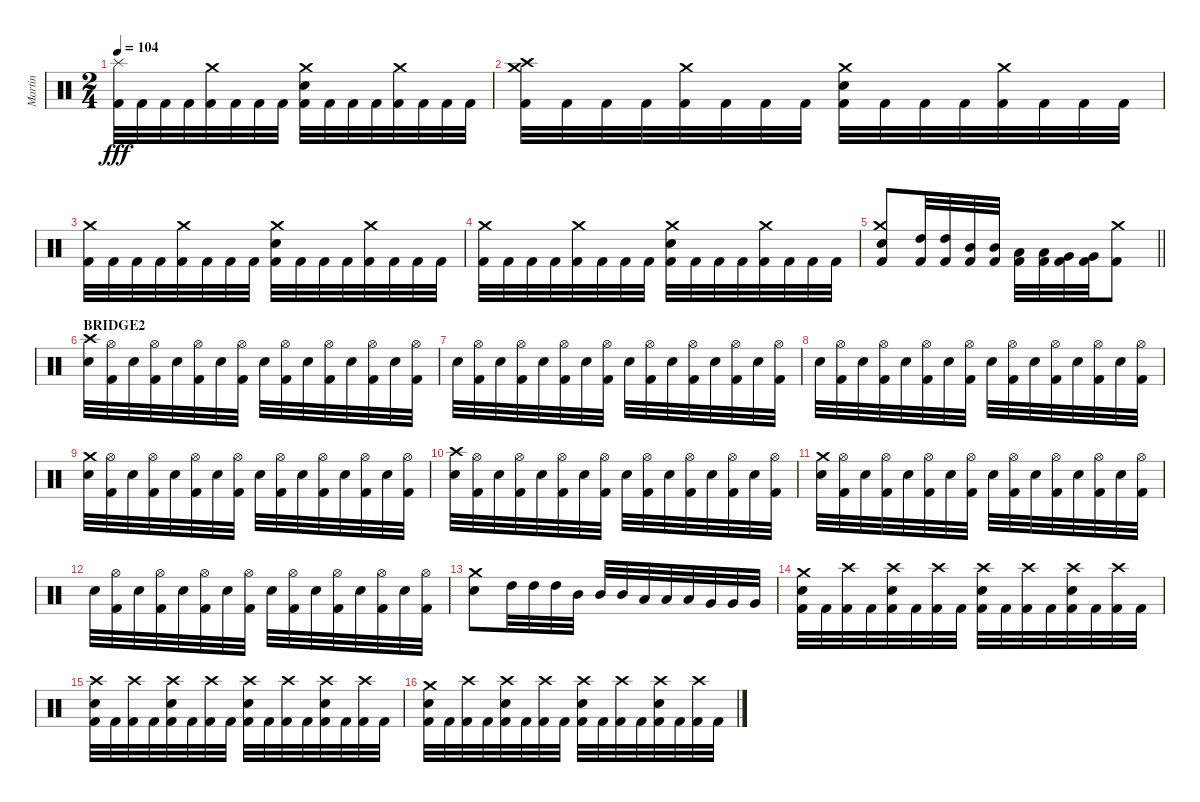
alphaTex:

\track ("Martin" "Martin") {instrument percussion}
\staff {score}
\articulation defaults
\ts (2 4)
\tempo 104
\clef neutral
\ks c
("Splash (hit)" "Kick (hit) 2").32{dy fff} "Kick (hit) 2".32 "Kick (hit) 2".32 "Kick (hit) 2".32 ("Crash medium (hit)" "Kick (hit) 2").32 "Kick (hit) 2".32 "Kick (hit) 2".32 "Kick (hit) 2".32 ("Crash medium (hit)" "Electric Snare (hit)" "Kick (hit) 2").32 "Kick (hit) 2".32 "Kick (hit) 2".32 "Kick (hit) 2".32 ("Crash medium (hit)" "Kick (hit) 2").32 "Kick (hit) 2".32 "Kick (hit) 2".32 "Kick (hit) 2".32 |
("Crash medium (hit)" "Crash high (hit)" "Kick (hit) 2").32 "Kick (hit) 2".32 "Kick (hit) 2".32 "Kick (hit) 2".32 ("Crash medium (hit)" "Kick (hit) 2").32 "Kick (hit) 2".32 "Kick (hit) 2".32 "Kick (hit) 2".32 ("Crash medium (hit)" "Electric Snare (hit)" "Kick (hit) 2").32 "Kick (hit) 2".32 "Kick (hit) 2".32 "Kick (hit) 2".32 ("Crash medium (hit)" "Kick (hit) 2").32 "Kick (hit) 2".32 "Kick (hit) 2".32 "Kick (hit) 2".32 |
("Crash medium (hit)" "Kick (hit) 2").32 "Kick (hit) 2".32 "Kick (hit) 2".32 "Kick (hit) 2".32 ("Crash medium (hit)" "Kick (hit) 2").32 "Kick (hit) 2".32 "Kick (hit) 2".32 "Kick (hit) 2".32 ("Crash medium (hit)" "Electric Snare (hit)" "Kick (hit) 2").32 "Kick (hit) 2".32 "Kick (hit) 2".32 "Kick (hit) 2".32 ("Crash medium (hit)" "Kick (hit) 2").32 "Kick (hit) 2".32 "Kick (hit) 2".32 "Kick (hit) 2".32 |
("Crash medium (hit)" "Kick (hit) 2").32 "Kick (hit) 2".32 "Kick (hit) 2".32 "Kick (hit) 2".32 ("Crash medium (hit)" "Kick (hit) 2").32 "Kick (hit) 2".32 "Kick (hit) 2".32 "Kick (hit) 2".32 ("Crash medium (hit)" "Electric Snare (hit)" "Kick (hit) 2").32 "Kick (hit) 2".32 "Kick (hit) 2".32 "Kick (hit) 2".32 ("Crash medium (hit)" "Kick (hit) 2").32 "Kick (hit) 2".32 "Kick (hit) 2".32 "Kick (hit) 2".32 |
\barLineRight lightlight
("Crash medium (hit)" "Electric Snare (hit)" "Kick (hit) 2").8 ("High Tom (hit)" "Kick (hit) 2").32 ("High Tom (hit)" "Kick (hit) 2").32 ("Mid Tom (hit)" "Kick (hit) 2").32 ("Mid Tom (hit)" "Kick (hit) 2").32 ("Low Tom (hit)" "Kick (hit) 2").32 ("Low Tom (hit)" "Kick (hit) 2").32 ("Very Low Tom (hit)" "Kick (hit) 2").32 ("Very Low Tom (hit)" "Kick (hit) 2").32 ("Crash medium (hit)" "Kick (hit) 2").8 |
\section ("" "BRIDGE2")
("Crash high (hit)" "Electric Snare (hit)").32 ("Hi-Hat (open)" "Kick (hit) 2").32 "Electric Snare (hit)".32 ("Hi-Hat (open)" "Kick (hit) 2").32 "Electric Snare (hit)".32 ("Hi-Hat (open)" "Kick (hit) 2").32 "Electric Snare (hit)".32 ("Hi-Hat (open)" "Kick (hit) 2").32 "Electric Snare (hit)".32 ("Hi-Hat (open)" "Kick (hit) 2").32 "Electric Snare (hit)".32 ("Hi-Hat (open)" "Kick (hit) 2").32 "Electric Snare (hit)".32 ("Hi-Hat (open)" "Kick (hit) 2").32 "Electric Snare (hit)".32 ("Hi-Hat (open)" "Kick (hit) 2").32 |
"Electric Snare (hit)".32 ("Hi-Hat (open)" "Kick (hit) 2").32 "Electric Snare (hit)".32 ("Hi-Hat (open)" "Kick (hit) 2").32 "Electric Snare (hit)".32 ("Hi-Hat (open)" "Kick (hit) 2").32 "Electric Snare (hit)".32 ("Hi-Hat (open)" "Kick (hit) 2").32 "Electric Snare (hit)".32 ("Hi-Hat (open)" "Kick (hit) 2").32 "Electric Snare (hit)".32 ("Hi-Hat (open)" "Kick (hit) 2").32 "Electric Snare (hit)".32 ("Hi-Hat (open)" "Kick (hit) 2").32 "Electric Snare (hit)".32 ("Hi-Hat (open)" "Kick (hit) 2").32 |
"Electric Snare (hit)".32 ("Hi-Hat (open)" "Kick (hit) 2").32 "Electric Snare (hit)".32 ("Hi-Hat (open)" "Kick (hit) 2").32 "Electric Snare (hit)".32 ("Hi-Hat (open)" "Kick (hit) 2").32 "Electric Snare (hit)".32 ("Hi-Hat (open)" "Kick (hit) 2").32 "Electric Snare (hit)".32 ("Hi-Hat (open)" "Kick (hit) 2").32 "Electric Snare (hit)".32 ("Hi-Hat (open)" "Kick (hit) 2").32 "Electric Snare (hit)".32 ("Hi-Hat (open)" "Kick (hit) 2").32 "Electric Snare (hit)".32 ("Hi-Hat (open)" "Kick (hit) 2").32 |
("Crash medium (hit)" "Electric Snare (hit)").32 ("Hi-Hat (open)" "Kick (hit) 2").32 "Electric Snare (hit)".32 ("Hi-Hat (open)" "Kick (hit) 2").32 "Electric Snare (hit)".32 ("Hi-Hat (open)" "Kick (hit) 2").32 "Electric Snare (hit)".32 ("Hi-Hat (open)" "Kick (hit) 2").32 "Electric Snare (hit)".32 ("Hi-Hat (open)" "Kick (hit) 2").32 "Electric Snare (hit)".32 ("Hi-Hat (open)" "Kick (hit) 2").32 "Electric Snare (hit)".32 ("Hi-Hat (open)" "Kick (hit) 2").32 "Electric Snare (hit)".32 ("Hi-Hat (open)" "Kick (hit) 2").32 |
("Crash high (hit)" "Electric Snare (hit)").32 ("Hi-Hat (open)" "Kick (hit) 2").32 "Electric Snare (hit)".32 ("Hi-Hat (open)" "Kick (hit) 2").32 "Electric Snare (hit)".32 ("Hi-Hat (open)" "Kick (hit) 2").32 "Electric Snare (hit)".32 ("Hi-Hat (open)" "Kick (hit) 2").32 "Electric Snare (hit)".32 ("Hi-Hat (open)" "Kick (hit) 2").32 "Electric Snare (hit)".32 ("Hi-Hat (open)" "Kick (hit) 2").32 "Electric Snare (hit)".32 ("Hi-Hat (open)" "Kick (hit) 2").32 "Electric Snare (hit)".32 ("Hi-Hat (open)" "Kick (hit) 2").32 |
("Crash medium (hit)" "Electric Snare (hit)").32 ("Hi-Hat (open)" "Kick (hit) 2").32 "Electric Snare (hit)".32 ("Hi-Hat (open)" "Kick (hit) 2").32 "Electric Snare (hit)".32 ("Hi-Hat (open)" "Kick (hit) 2").32 "Electric Snare (hit)".32 ("Hi-Hat (open)" "Kick (hit) 2").32 "Electric Snare (hit)".32 ("Hi-Hat (open)" "Kick (hit) 2").32 "Electric Snare (hit)".32 ("Hi-Hat (open)" "Kick (hit) 2").32 "Electric Snare (hit)".32 ("Hi-Hat (open)" "Kick (hit) 2").32 "Electric Snare (hit)".32 ("Hi-Hat (open)" "Kick (hit) 2").32 |
"Electric Snare (hit)".32 ("Hi-Hat (open)" "Kick (hit) 2").32 "Electric Snare (hit)".32 ("Hi-Hat (open)" "Kick (hit) 2").32 "Electric Snare (hit)".32 ("Hi-Hat (open)" "Kick (hit) 2").32 "Electric Snare (hit)".32 ("Hi-Hat (open)" "Kick (hit) 2").32 "Electric Snare (hit)".32 ("Hi-Hat (open)" "Kick (hit) 2").32 "Electric Snare (hit)".32 ("Hi-Hat (open)" "Kick (hit) 2").32 "Electric Snare (hit)".32 ("Hi-Hat (open)" "Kick (hit) 2").32 "Electric Snare (hit)".32 ("Hi-Hat (open)" "Kick (hit) 2").32 |
("Crash medium (hit)" "Electric Snare (hit)").8 "High Tom (hit)".32 "High Tom (hit)".32 "High Tom (hit)".32 "Mid Tom (hit)".32 "Mid Tom (hit)".32 "Mid Tom (hit)".32 "Low Tom (hit)".32 "Low Tom (hit)".32 "Low Tom (hit)".32 "Very Low Tom (hit)".32 "Very Low Tom (hit)".32 "Very Low Tom (hit)".32 |
("Crash medium (hit)" "Electric Snare (hit)" "Kick (hit) 2").32 "Kick (hit) 2".32 ("Crash high (hit)" "Kick (hit) 2").32 "Kick (hit) 2".32 ("Crash high (hit)" "Electric Snare (hit)" "Kick (hit) 2").32 "Kick (hit) 2".32 ("Crash high (hit)" "Kick (hit) 2").32 "Kick (hit) 2".32 ("Crash high (hit)" "Electric Snare (hit)" "Kick (hit) 2").32 "Kick (hit) 2".32 ("Crash high (hit)" "Kick (hit) 2").32 "Kick (hit) 2".32 ("Crash high (hit)" "Electric Snare (hit)" "Kick (hit) 2").32 "Kick (hit) 2".32 ("Crash high (hit)" "Kick (hit) 2").32 "Kick (hit) 2".32 |
("Crash high (hit)" "Electric Snare (hit)" "Kick (hit) 2").32 "Kick (hit) 2".32 ("Crash high (hit)" "Kick (hit) 2").32 "Kick (hit) 2".32 ("Crash high (hit)" "Electric Snare (hit)" "Kick (hit) 2").32 "Kick (hit) 2".32 ("Crash high (hit)" "Kick (hit) 2").32 "Kick (hit) 2".32 ("Crash high (hit)" "Electric Snare (hit)" "Kick (hit) 2").32 "Kick (hit) 2".32 ("Crash high (hit)" "Kick (hit) 2").32 "Kick (hit) 2".32 ("Crash high (hit)" "Electric Snare (hit)" "Kick (hit) 2").32 "Kick (hit) 2".32 ("Crash high (hit)" "Kick (hit) 2").32 "Kick (hit) 2".32 |
("Crash medium (hit)" "Electric Snare (hit)" "Kick (hit) 2").32 "Kick (hit) 2".32 ("Crash high (hit)" "Kick (hit) 2").32 "Kick (hit) 2".32 ("Crash high (hit)" "Electric Snare (hit)" "Kick (hit) 2").32 "Kick (hit) 2".32 ("Crash high (hit)" "Kick (hit) 2").32 "Kick (hit) 2".32 ("Crash high (hit)" "Electric Snare (hit)" "Kick (hit) 2").32 "Kick (hit) 2".32 ("Crash high (hit)" "Kick (hit) 2").32 "Kick (hit) 2".32 ("Crash high (hit)" "Electric Snare (hit)" "Kick (hit) 2").32 "Kick (hit) 2".32 ("Crash high (hit)" "Kick (hit) 2").32 "Kick (hit) 2".32
